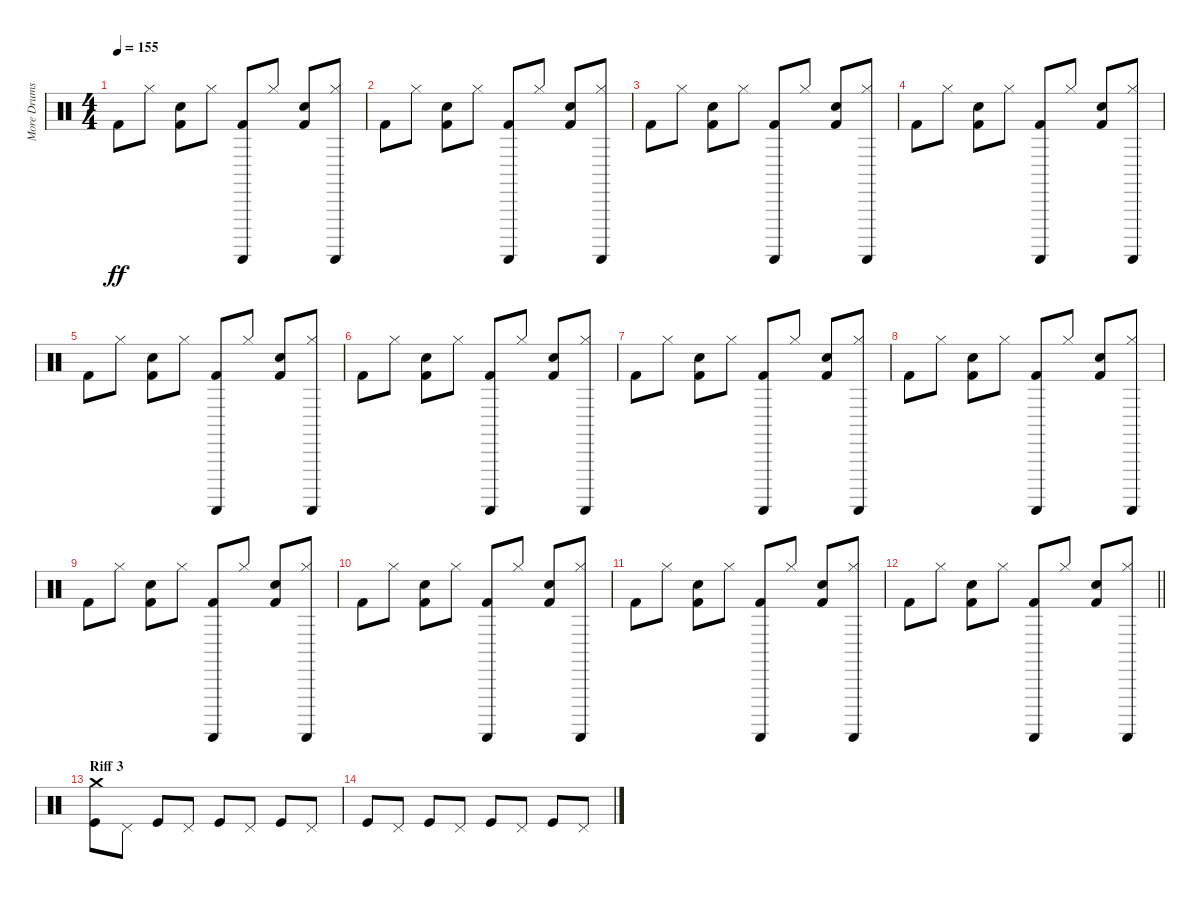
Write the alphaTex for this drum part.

\track ("More Drums" "More Drums") {instrument percussion}
\staff {score}
\articulation defaults
\ts (4 4)
\tempo 155
\clef neutral
\ks c "Kick (hit) 2".8{dy ff} "Hi-Hat (closed)".8
("Kick (hit) 2" "Electric Snare (hit)").8 "Hi-Hat (closed)".8 ("Kick (hit) 2" "Guiro (scrap-return)").8 "Hi-Hat (closed)".8 ("Kick (hit) 2" "Electric Snare (hit)").8 ("Hi-Hat (closed)" "Guiro (scrap-return)").8 |
"Kick (hit) 2".8 "Hi-Hat (closed)".8 ("Kick (hit) 2" "Electric Snare (hit)").8 "Hi-Hat (closed)".8 ("Kick (hit) 2" "Guiro (scrap-return)").8 "Hi-Hat (closed)".8 ("Kick (hit) 2" "Electric Snare (hit)").8 ("Hi-Hat (closed)" "Guiro (scrap-return)").8 |
"Kick (hit) 2".8 "Hi-Hat (closed)".8 ("Kick (hit) 2" "Electric Snare (hit)").8 "Hi-Hat (closed)".8 ("Kick (hit) 2" "Guiro (scrap-return)").8 "Hi-Hat (closed)".8 ("Kick (hit) 2" "Electric Snare (hit)").8 ("Hi-Hat (closed)" "Guiro (scrap-return)").8 |
"Kick (hit) 2".8 "Hi-Hat (closed)".8 ("Kick (hit) 2" "Electric Snare (hit)").8 "Hi-Hat (closed)".8 ("Kick (hit) 2" "Guiro (scrap-return)").8 "Hi-Hat (closed)".8 ("Kick (hit) 2" "Electric Snare (hit)").8 ("Hi-Hat (closed)" "Guiro (scrap-return)").8 |
"Kick (hit) 2".8 "Hi-Hat (closed)".8 ("Kick (hit) 2" "Electric Snare (hit)").8 "Hi-Hat (closed)".8 ("Kick (hit) 2" "Guiro (scrap-return)").8 "Hi-Hat (closed)".8 ("Kick (hit) 2" "Electric Snare (hit)").8 ("Hi-Hat (closed)" "Guiro (scrap-return)").8 |
"Kick (hit) 2".8 "Hi-Hat (closed)".8 ("Kick (hit) 2" "Electric Snare (hit)").8 "Hi-Hat (closed)".8 ("Kick (hit) 2" "Guiro (scrap-return)").8 "Hi-Hat (closed)".8 ("Kick (hit) 2" "Electric Snare (hit)").8 ("Hi-Hat (closed)" "Guiro (scrap-return)").8 |
"Kick (hit) 2".8 "Hi-Hat (closed)".8 ("Kick (hit) 2" "Electric Snare (hit)").8 "Hi-Hat (closed)".8 ("Kick (hit) 2" "Guiro (scrap-return)").8 "Hi-Hat (closed)".8 ("Kick (hit) 2" "Electric Snare (hit)").8 ("Hi-Hat (closed)" "Guiro (scrap-return)").8 |
"Kick (hit) 2".8 "Hi-Hat (closed)".8 ("Kick (hit) 2" "Electric Snare (hit)").8 "Hi-Hat (closed)".8 ("Kick (hit) 2" "Guiro (scrap-return)").8 "Hi-Hat (closed)".8 ("Kick (hit) 2" "Electric Snare (hit)").8 ("Hi-Hat (closed)" "Guiro (scrap-return)").8 |
"Kick (hit) 2".8 "Hi-Hat (closed)".8 ("Kick (hit) 2" "Electric Snare (hit)").8 "Hi-Hat (closed)".8 ("Kick (hit) 2" "Guiro (scrap-return)").8 "Hi-Hat (closed)".8 ("Kick (hit) 2" "Electric Snare (hit)").8 ("Hi-Hat (closed)" "Guiro (scrap-return)").8 |
"Kick (hit) 2".8 "Hi-Hat (closed)".8 ("Kick (hit) 2" "Electric Snare (hit)").8 "Hi-Hat (closed)".8 ("Kick (hit) 2" "Guiro (scrap-return)").8 "Hi-Hat (closed)".8 ("Kick (hit) 2" "Electric Snare (hit)").8 ("Hi-Hat (closed)" "Guiro (scrap-return)").8 |
"Kick (hit) 2".8 "Hi-Hat (closed)".8 ("Kick (hit) 2" "Electric Snare (hit)").8 "Hi-Hat (closed)".8 ("Kick (hit) 2" "Guiro (scrap-return)").8 "Hi-Hat (closed)".8 ("Kick (hit) 2" "Electric Snare (hit)").8 ("Hi-Hat (closed)" "Guiro (scrap-return)").8 |
\barLineRight lightlight "Kick (hit) 2".8 "Hi-Hat (closed)".8
("Kick (hit) 2" "Electric Snare (hit)").8 "Hi-Hat (closed)".8 ("Kick (hit) 2" "Guiro (scrap-return)").8 "Hi-Hat (closed)".8 ("Kick (hit) 2" "Electric Snare (hit)").8 ("Hi-Hat (closed)" "Guiro (scrap-return)").8 |
\section ("" "Riff 3")
("Kick (hit)" "Crash medium (hit)").8 "Pedal Hi-Hat (hit)".8 "Kick (hit)".8 "Pedal Hi-Hat (hit)".8 "Kick (hit)".8 "Pedal Hi-Hat (hit)".8 "Kick (hit)".8 "Pedal Hi-Hat (hit)".8 |
"Kick (hit)".8 "Pedal Hi-Hat (hit)".8 "Kick (hit)".8 "Pedal Hi-Hat (hit)".8 "Kick (hit)".8 "Pedal Hi-Hat (hit)".8 "Kick (hit)".8 "Pedal Hi-Hat (hit)".8
